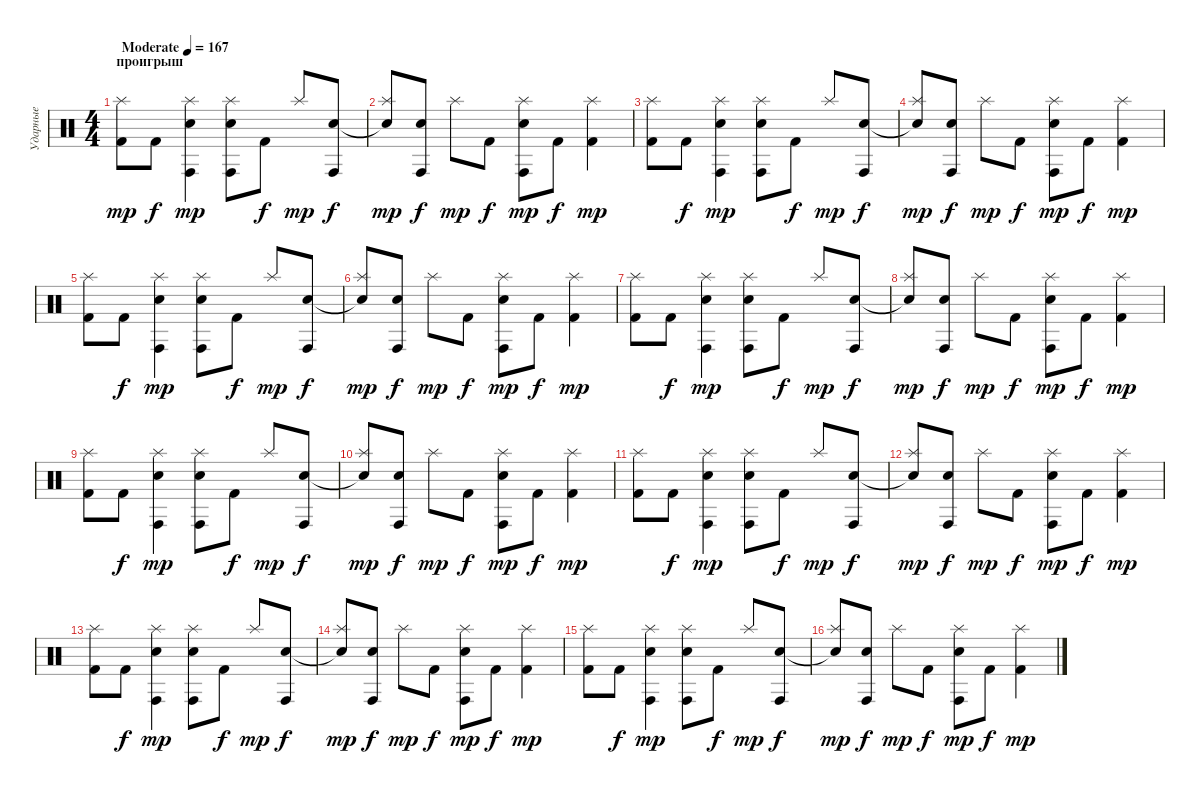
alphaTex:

\track ("Ударные" "Ударные") {instrument percussion}
\staff {score}
\articulation defaults
\ts (4 4)
\section ("" "проигрыш")
\tempo (167 "Moderate")
\clef neutral
\ks c
("Splash (hit)" "Kick (hit) 2").8{dy mp} "Kick (hit) 2".8{dy f} ("Splash (hit)" "Conga high (hit)" "Electric Snare (hit)").4{dy mp} ("Splash (hit)" "Conga high (hit)" "Electric Snare (hit)").8 "Kick (hit) 2".8{dy f} "Splash (hit)".8{dy mp} ("Conga high (hit)" "Electric Snare (hit)").8{dy f} |
("Splash (hit)" "Electric Snare (hit)"{t}).8{dy mp} ("Conga high (hit)" "Electric Snare (hit)").8{dy f} "Splash (hit)".8{dy mp} "Kick (hit) 2".8{dy f} ("Splash (hit)" "Conga high (hit)" "Electric Snare (hit)").8{dy mp} "Kick (hit) 2".8{dy f} ("Splash (hit)" "Kick (hit) 2").4{dy mp} |
("Splash (hit)" "Kick (hit) 2").8 "Kick (hit) 2".8{dy f} ("Splash (hit)" "Conga high (hit)" "Electric Snare (hit)").4{dy mp} ("Splash (hit)" "Conga high (hit)" "Electric Snare (hit)").8 "Kick (hit) 2".8{dy f} "Splash (hit)".8{dy mp} ("Conga high (hit)" "Electric Snare (hit)").8{dy f} |
("Splash (hit)" "Electric Snare (hit)"{t}).8{dy mp} ("Conga high (hit)" "Electric Snare (hit)").8{dy f} "Splash (hit)".8{dy mp} "Kick (hit) 2".8{dy f} ("Splash (hit)" "Conga high (hit)" "Electric Snare (hit)").8{dy mp} "Kick (hit) 2".8{dy f} ("Splash (hit)" "Kick (hit) 2").4{dy mp} |
("Splash (hit)" "Kick (hit) 2").8 "Kick (hit) 2".8{dy f} ("Splash (hit)" "Conga high (hit)" "Electric Snare (hit)").4{dy mp} ("Splash (hit)" "Conga high (hit)" "Electric Snare (hit)").8 "Kick (hit) 2".8{dy f} "Splash (hit)".8{dy mp} ("Conga high (hit)" "Electric Snare (hit)").8{dy f} |
("Splash (hit)" "Electric Snare (hit)"{t}).8{dy mp} ("Conga high (hit)" "Electric Snare (hit)").8{dy f} "Splash (hit)".8{dy mp} "Kick (hit) 2".8{dy f} ("Splash (hit)" "Conga high (hit)" "Electric Snare (hit)").8{dy mp} "Kick (hit) 2".8{dy f} ("Splash (hit)" "Kick (hit) 2").4{dy mp} |
("Splash (hit)" "Kick (hit) 2").8 "Kick (hit) 2".8{dy f} ("Splash (hit)" "Conga high (hit)" "Electric Snare (hit)").4{dy mp} ("Splash (hit)" "Conga high (hit)" "Electric Snare (hit)").8 "Kick (hit) 2".8{dy f} "Splash (hit)".8{dy mp} ("Conga high (hit)" "Electric Snare (hit)").8{dy f} |
("Splash (hit)" "Electric Snare (hit)"{t}).8{dy mp} ("Conga high (hit)" "Electric Snare (hit)").8{dy f} "Splash (hit)".8{dy mp} "Kick (hit) 2".8{dy f} ("Splash (hit)" "Conga high (hit)" "Electric Snare (hit)").8{dy mp} "Kick (hit) 2".8{dy f} ("Splash (hit)" "Kick (hit) 2").4{dy mp} |
("Splash (hit)" "Kick (hit) 2").8 "Kick (hit) 2".8{dy f} ("Splash (hit)" "Conga high (hit)" "Electric Snare (hit)").4{dy mp} ("Splash (hit)" "Conga high (hit)" "Electric Snare (hit)").8 "Kick (hit) 2".8{dy f} "Splash (hit)".8{dy mp} ("Conga high (hit)" "Electric Snare (hit)").8{dy f} |
("Splash (hit)" "Electric Snare (hit)"{t}).8{dy mp} ("Conga high (hit)" "Electric Snare (hit)").8{dy f} "Splash (hit)".8{dy mp} "Kick (hit) 2".8{dy f} ("Splash (hit)" "Conga high (hit)" "Electric Snare (hit)").8{dy mp} "Kick (hit) 2".8{dy f} ("Splash (hit)" "Kick (hit) 2").4{dy mp} |
("Splash (hit)" "Kick (hit) 2").8 "Kick (hit) 2".8{dy f} ("Splash (hit)" "Conga high (hit)" "Electric Snare (hit)").4{dy mp} ("Splash (hit)" "Conga high (hit)" "Electric Snare (hit)").8 "Kick (hit) 2".8{dy f} "Splash (hit)".8{dy mp} ("Conga high (hit)" "Electric Snare (hit)").8{dy f} |
("Splash (hit)" "Electric Snare (hit)"{t}).8{dy mp} ("Conga high (hit)" "Electric Snare (hit)").8{dy f} "Splash (hit)".8{dy mp} "Kick (hit) 2".8{dy f} ("Splash (hit)" "Conga high (hit)" "Electric Snare (hit)").8{dy mp} "Kick (hit) 2".8{dy f} ("Splash (hit)" "Kick (hit) 2").4{dy mp} |
("Splash (hit)" "Kick (hit) 2").8 "Kick (hit) 2".8{dy f} ("Splash (hit)" "Conga high (hit)" "Electric Snare (hit)").4{dy mp} ("Splash (hit)" "Conga high (hit)" "Electric Snare (hit)").8 "Kick (hit) 2".8{dy f} "Splash (hit)".8{dy mp} ("Conga high (hit)" "Electric Snare (hit)").8{dy f} |
("Splash (hit)" "Electric Snare (hit)"{t}).8{dy mp} ("Conga high (hit)" "Electric Snare (hit)").8{dy f} "Splash (hit)".8{dy mp} "Kick (hit) 2".8{dy f} ("Splash (hit)" "Conga high (hit)" "Electric Snare (hit)").8{dy mp} "Kick (hit) 2".8{dy f} ("Splash (hit)" "Kick (hit) 2").4{dy mp} |
("Splash (hit)" "Kick (hit) 2").8 "Kick (hit) 2".8{dy f} ("Splash (hit)" "Conga high (hit)" "Electric Snare (hit)").4{dy mp} ("Splash (hit)" "Conga high (hit)" "Electric Snare (hit)").8 "Kick (hit) 2".8{dy f} "Splash (hit)".8{dy mp} ("Conga high (hit)" "Electric Snare (hit)").8{dy f} |
("Splash (hit)" "Electric Snare (hit)"{t}).8{dy mp} ("Conga high (hit)" "Electric Snare (hit)").8{dy f} "Splash (hit)".8{dy mp} "Kick (hit) 2".8{dy f} ("Splash (hit)" "Conga high (hit)" "Electric Snare (hit)").8{dy mp} "Kick (hit) 2".8{dy f} ("Splash (hit)" "Kick (hit) 2").4{dy mp}
